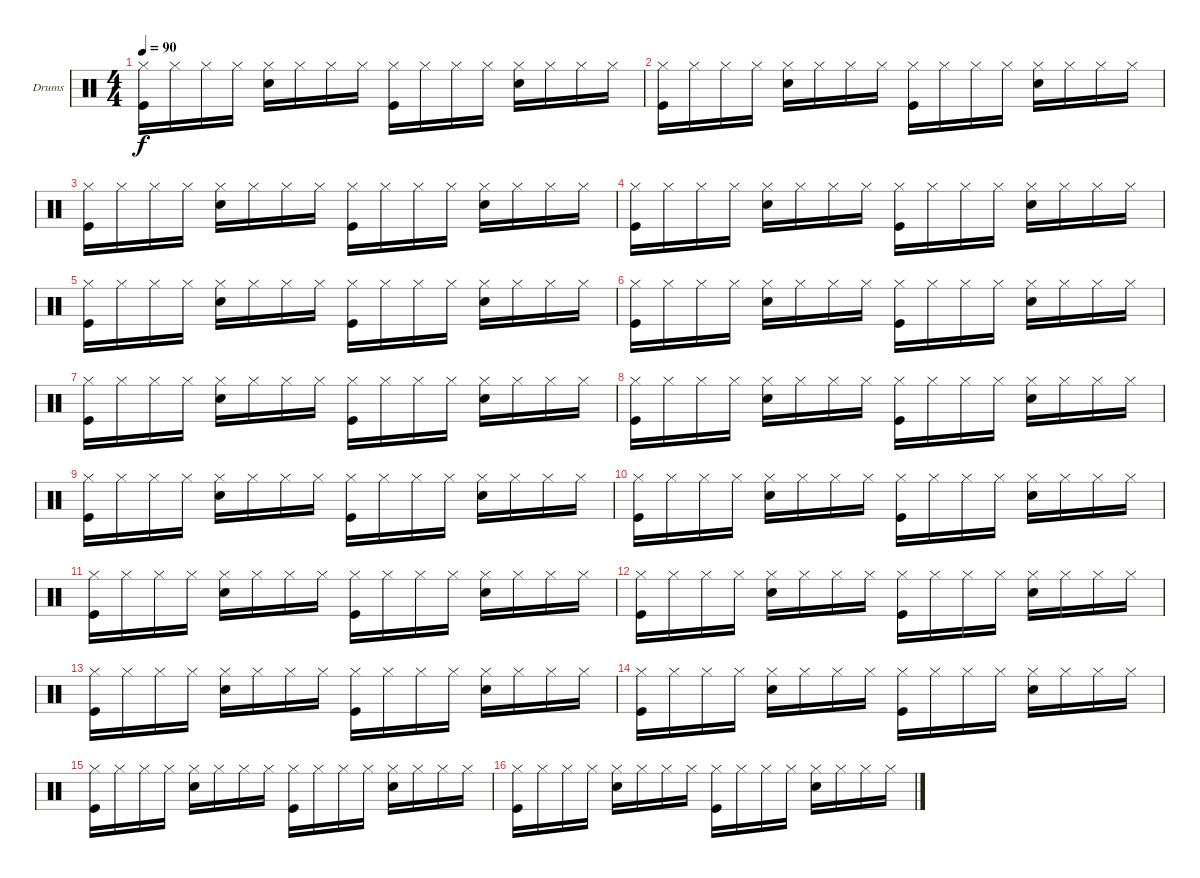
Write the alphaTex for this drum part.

\defaultSystemsLayout 4
\bracketExtendMode groupsimilarinstruments
\firstSystemTrackNameOrientation horizontal
\otherSystemsTrackNameOrientation horizontal
\track ("Drumkit" "Drums") {instrument percussion}
\staff {score}
\articulation defaults
\ts (4 4)
\tempo 90
\clef neutral
\scale
0.333333
\ks c
("Hi-Hat (closed)" "Kick (hit)").16{dy f} "Hi-Hat (closed)".16 "Hi-Hat (closed)".16 "Hi-Hat (closed)".16 ("Hi-Hat (closed)" "Snare (hit) 2").16 "Hi-Hat (closed)".16 "Hi-Hat (closed)".16 "Hi-Hat (closed)".16 ("Hi-Hat (closed)" "Kick (hit)").16 "Hi-Hat (closed)".16 "Hi-Hat (closed)".16 "Hi-Hat (closed)".16 ("Hi-Hat (closed)" "Snare (hit) 2").16 "Hi-Hat (closed)".16 "Hi-Hat (closed)".16 "Hi-Hat (closed)".16 |
\scale
0.333333 ("Hi-Hat (closed)" "Kick (hit)").16 "Hi-Hat (closed)".16 "Hi-Hat (closed)".16 "Hi-Hat (closed)".16 ("Hi-Hat (closed)" "Snare (hit) 2").16 "Hi-Hat (closed)".16 "Hi-Hat (closed)".16 "Hi-Hat (closed)".16 ("Hi-Hat (closed)" "Kick (hit)").16 "Hi-Hat (closed)".16 "Hi-Hat (closed)".16 "Hi-Hat (closed)".16 ("Hi-Hat (closed)" "Snare (hit) 2").16 "Hi-Hat (closed)".16 "Hi-Hat (closed)".16 "Hi-Hat (closed)".16 |
\scale
0.333333 ("Hi-Hat (closed)" "Kick (hit)").16 "Hi-Hat (closed)".16 "Hi-Hat (closed)".16 "Hi-Hat (closed)".16 ("Hi-Hat (closed)" "Snare (hit) 2").16 "Hi-Hat (closed)".16 "Hi-Hat (closed)".16 "Hi-Hat (closed)".16 ("Hi-Hat (closed)" "Kick (hit)").16 "Hi-Hat (closed)".16 "Hi-Hat (closed)".16 "Hi-Hat (closed)".16 ("Hi-Hat (closed)" "Snare (hit) 2").16 "Hi-Hat (closed)".16 "Hi-Hat (closed)".16 "Hi-Hat (closed)".16 |
\scale
0.333333 ("Hi-Hat (closed)" "Kick (hit)").16 "Hi-Hat (closed)".16 "Hi-Hat (closed)".16 "Hi-Hat (closed)".16 ("Hi-Hat (closed)" "Snare (hit) 2").16 "Hi-Hat (closed)".16 "Hi-Hat (closed)".16 "Hi-Hat (closed)".16 ("Hi-Hat (closed)" "Kick (hit)").16 "Hi-Hat (closed)".16 "Hi-Hat (closed)".16 "Hi-Hat (closed)".16 ("Hi-Hat (closed)" "Snare (hit) 2").16 "Hi-Hat (closed)".16 "Hi-Hat (closed)".16 "Hi-Hat (closed)".16 |
\scale
0.333333 ("Hi-Hat (closed)" "Kick (hit)").16 "Hi-Hat (closed)".16 "Hi-Hat (closed)".16 "Hi-Hat (closed)".16 ("Hi-Hat (closed)" "Snare (hit) 2").16 "Hi-Hat (closed)".16 "Hi-Hat (closed)".16 "Hi-Hat (closed)".16 ("Hi-Hat (closed)" "Kick (hit)").16 "Hi-Hat (closed)".16 "Hi-Hat (closed)".16 "Hi-Hat (closed)".16 ("Hi-Hat (closed)" "Snare (hit) 2").16 "Hi-Hat (closed)".16 "Hi-Hat (closed)".16 "Hi-Hat (closed)".16 |
\scale
0.333333 ("Hi-Hat (closed)" "Kick (hit)").16 "Hi-Hat (closed)".16 "Hi-Hat (closed)".16 "Hi-Hat (closed)".16 ("Hi-Hat (closed)" "Snare (hit) 2").16 "Hi-Hat (closed)".16 "Hi-Hat (closed)".16 "Hi-Hat (closed)".16 ("Hi-Hat (closed)" "Kick (hit)").16 "Hi-Hat (closed)".16 "Hi-Hat (closed)".16 "Hi-Hat (closed)".16 ("Hi-Hat (closed)" "Snare (hit) 2").16 "Hi-Hat (closed)".16 "Hi-Hat (closed)".16 "Hi-Hat (closed)".16 |
\scale
0.333333 ("Hi-Hat (closed)" "Kick (hit)").16 "Hi-Hat (closed)".16 "Hi-Hat (closed)".16 "Hi-Hat (closed)".16 ("Hi-Hat (closed)" "Snare (hit) 2").16 "Hi-Hat (closed)".16 "Hi-Hat (closed)".16 "Hi-Hat (closed)".16 ("Hi-Hat (closed)" "Kick (hit)").16 "Hi-Hat (closed)".16 "Hi-Hat (closed)".16 "Hi-Hat (closed)".16 ("Hi-Hat (closed)" "Snare (hit) 2").16 "Hi-Hat (closed)".16 "Hi-Hat (closed)".16 "Hi-Hat (closed)".16 |
\scale
0.333333 ("Hi-Hat (closed)" "Kick (hit)").16 "Hi-Hat (closed)".16 "Hi-Hat (closed)".16 "Hi-Hat (closed)".16 ("Hi-Hat (closed)" "Snare (hit) 2").16 "Hi-Hat (closed)".16 "Hi-Hat (closed)".16 "Hi-Hat (closed)".16 ("Hi-Hat (closed)" "Kick (hit)").16 "Hi-Hat (closed)".16 "Hi-Hat (closed)".16 "Hi-Hat (closed)".16 ("Hi-Hat (closed)" "Snare (hit) 2").16 "Hi-Hat (closed)".16 "Hi-Hat (closed)".16 "Hi-Hat (closed)".16 |
\scale
0.333333 ("Hi-Hat (closed)" "Kick (hit)").16 "Hi-Hat (closed)".16 "Hi-Hat (closed)".16 "Hi-Hat (closed)".16 ("Hi-Hat (closed)" "Snare (hit) 2").16 "Hi-Hat (closed)".16 "Hi-Hat (closed)".16 "Hi-Hat (closed)".16 ("Hi-Hat (closed)" "Kick (hit)").16 "Hi-Hat (closed)".16 "Hi-Hat (closed)".16 "Hi-Hat (closed)".16 ("Hi-Hat (closed)" "Snare (hit) 2").16 "Hi-Hat (closed)".16 "Hi-Hat (closed)".16 "Hi-Hat (closed)".16 |
\scale
0.333333 ("Hi-Hat (closed)" "Kick (hit)").16 "Hi-Hat (closed)".16 "Hi-Hat (closed)".16 "Hi-Hat (closed)".16 ("Snare (hit) 2" "Hi-Hat (closed)").16 "Hi-Hat (closed)".16 "Hi-Hat (closed)".16 "Hi-Hat (closed)".16 ("Hi-Hat (closed)" "Kick (hit)").16 "Hi-Hat (closed)".16 "Hi-Hat (closed)".16 "Hi-Hat (closed)".16 ("Hi-Hat (closed)" "Snare (hit) 2").16 "Hi-Hat (closed)".16 "Hi-Hat (closed)".16 "Hi-Hat (closed)".16 |
\scale
0.333333 ("Kick (hit)" "Hi-Hat (closed)").16 "Hi-Hat (closed)".16 "Hi-Hat (closed)".16 "Hi-Hat (closed)".16 ("Hi-Hat (closed)" "Snare (hit) 2").16 "Hi-Hat (closed)".16 "Hi-Hat (closed)".16 "Hi-Hat (closed)".16 ("Hi-Hat (closed)" "Kick (hit)").16 "Hi-Hat (closed)".16 "Hi-Hat (closed)".16 "Hi-Hat (closed)".16 ("Snare (hit) 2" "Hi-Hat (closed)").16 "Hi-Hat (closed)".16 "Hi-Hat (closed)".16 "Hi-Hat (closed)".16 |
\scale
0.333333 ("Hi-Hat (closed)" "Kick (hit)").16 "Hi-Hat (closed)".16 "Hi-Hat (closed)".16 "Hi-Hat (closed)".16 ("Hi-Hat (closed)" "Snare (hit) 2").16 "Hi-Hat (closed)".16 "Hi-Hat (closed)".16 "Hi-Hat (closed)".16 ("Kick (hit)" "Hi-Hat (closed)").16 "Hi-Hat (closed)".16 "Hi-Hat (closed)".16 "Hi-Hat (closed)".16 ("Hi-Hat (closed)" "Snare (hit) 2").16 "Hi-Hat (closed)".16 "Hi-Hat (closed)".16 "Hi-Hat (closed)".16 |
\scale
0.333333 ("Hi-Hat (closed)" "Kick (hit)").16 "Hi-Hat (closed)".16 "Hi-Hat (closed)".16 "Hi-Hat (closed)".16 ("Snare (hit) 2" "Hi-Hat (closed)").16 "Hi-Hat (closed)".16 "Hi-Hat (closed)".16 "Hi-Hat (closed)".16 ("Hi-Hat (closed)" "Kick (hit)").16 "Hi-Hat (closed)".16 "Hi-Hat (closed)".16 "Hi-Hat (closed)".16 ("Hi-Hat (closed)" "Snare (hit) 2").16 "Hi-Hat (closed)".16 "Hi-Hat (closed)".16 "Hi-Hat (closed)".16 |
\scale
0.333333 ("Kick (hit)" "Hi-Hat (closed)").16 "Hi-Hat (closed)".16 "Hi-Hat (closed)".16 "Hi-Hat (closed)".16 ("Hi-Hat (closed)" "Snare (hit) 2").16 "Hi-Hat (closed)".16 "Hi-Hat (closed)".16 "Hi-Hat (closed)".16 ("Hi-Hat (closed)" "Kick (hit)").16 "Hi-Hat (closed)".16 "Hi-Hat (closed)".16 "Hi-Hat (closed)".16 ("Snare (hit) 2" "Hi-Hat (closed)").16 "Hi-Hat (closed)".16 "Hi-Hat (closed)".16 "Hi-Hat (closed)".16 |
\scale
0.333333 ("Hi-Hat (closed)" "Kick (hit)").16 "Hi-Hat (closed)".16 "Hi-Hat (closed)".16 "Hi-Hat (closed)".16 ("Hi-Hat (closed)" "Snare (hit) 2").16 "Hi-Hat (closed)".16 "Hi-Hat (closed)".16 "Hi-Hat (closed)".16 ("Kick (hit)" "Hi-Hat (closed)").16 "Hi-Hat (closed)".16 "Hi-Hat (closed)".16 "Hi-Hat (closed)".16 ("Hi-Hat (closed)" "Snare (hit) 2").16 "Hi-Hat (closed)".16 "Hi-Hat (closed)".16 "Hi-Hat (closed)".16 |
\scale
0.333333 ("Hi-Hat (closed)" "Kick (hit)").16 "Hi-Hat (closed)".16 "Hi-Hat (closed)".16 "Hi-Hat (closed)".16 ("Snare (hit) 2" "Hi-Hat (closed)").16 "Hi-Hat (closed)".16 "Hi-Hat (closed)".16 "Hi-Hat (closed)".16 ("Hi-Hat (closed)" "Kick (hit)").16 "Hi-Hat (closed)".16 "Hi-Hat (closed)".16 "Hi-Hat (closed)".16 ("Hi-Hat (closed)" "Snare (hit) 2").16 "Hi-Hat (closed)".16 "Hi-Hat (closed)".16 "Hi-Hat (closed)".16
